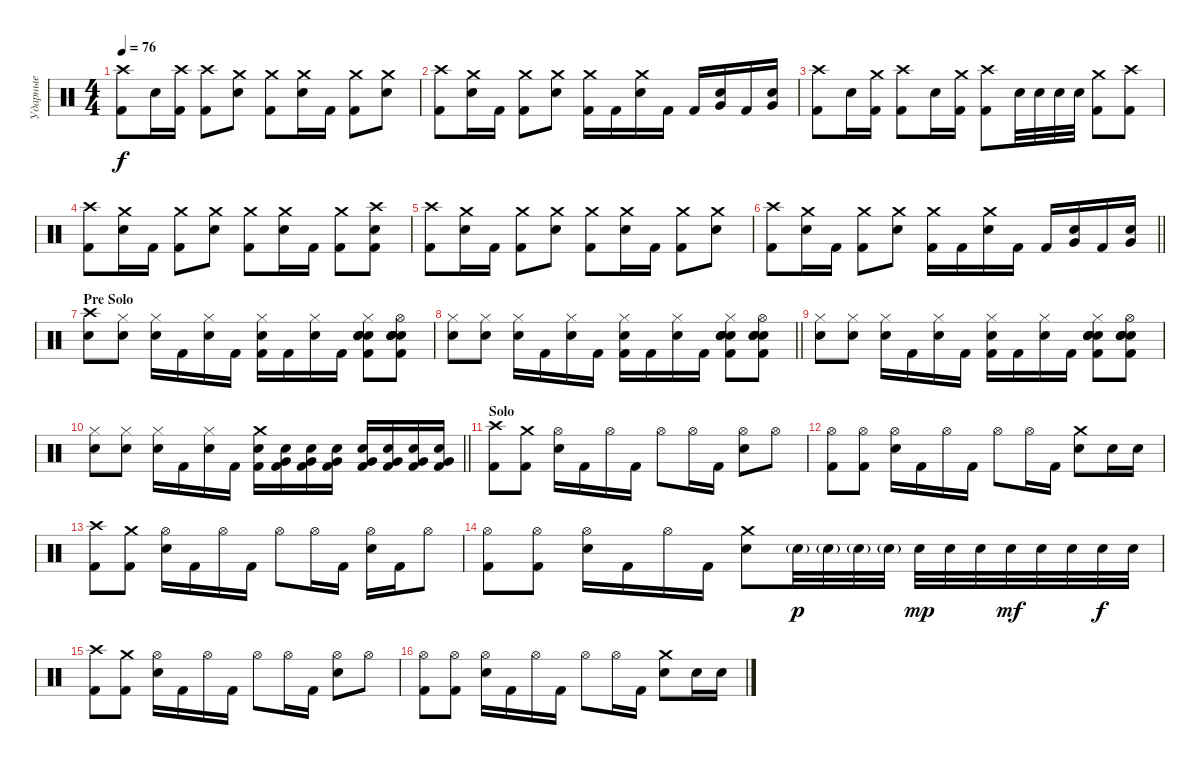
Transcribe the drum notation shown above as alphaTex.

\track ("Ударные" "Ударные") {instrument percussion}
\staff {score}
\articulation defaults
\ts (4 4)
\tempo 76
\clef neutral
\ks c
("Crash high (hit)" "Kick (hit) 2").8{dy f} "Electric Snare (hit)".16 ("Crash high (hit)" "Kick (hit) 2").16 ("Crash high (hit)" "Kick (hit) 2").8 ("Crash medium (hit)" "Electric Snare (hit)").8 ("Crash medium (hit)" "Kick (hit) 2").8 ("Crash medium (hit)" "Electric Snare (hit)").16 "Kick (hit) 2".16 ("Crash medium (hit)" "Kick (hit) 2").8 ("Crash medium (hit)" "Electric Snare (hit)").8 |
("Crash high (hit)" "Kick (hit) 2").8 ("Crash medium (hit)" "Electric Snare (hit)").16 "Kick (hit) 2".16 ("Crash medium (hit)" "Kick (hit) 2").8 ("Crash medium (hit)" "Electric Snare (hit)").8 ("Crash medium (hit)" "Kick (hit) 2").16 "Kick (hit) 2".16 ("Crash medium (hit)" "Electric Snare (hit)").16 "Kick (hit) 2".16 "Kick (hit) 2".16 ("Electric Snare (hit)" "Very Low Tom (hit)").16 "Kick (hit) 2".16 ("Electric Snare (hit)" "Very Low Tom (hit)").16 |
("Crash high (hit)" "Kick (hit) 2").8 "Electric Snare (hit)".16 ("Crash medium (hit)" "Kick (hit) 2").16 ("Crash high (hit)" "Kick (hit) 2").8 "Electric Snare (hit)".16 ("Crash medium (hit)" "Kick (hit) 2").16 ("Crash high (hit)" "Kick (hit) 2").8 "Electric Snare (hit)".32 "Electric Snare (hit)".32 "Electric Snare (hit)".32 "Electric Snare (hit)".32 ("Crash medium (hit)" "Kick (hit) 2").8 ("Crash high (hit)" "Kick (hit) 2").8 |
("Crash high (hit)" "Kick (hit) 2").8 ("Crash medium (hit)" "Electric Snare (hit)").16 "Kick (hit) 2".16 ("Crash medium (hit)" "Kick (hit) 2").8 ("Crash medium (hit)" "Electric Snare (hit)").8 ("Crash medium (hit)" "Kick (hit) 2").8 ("Crash medium (hit)" "Electric Snare (hit)").16 "Kick (hit) 2".16 ("Crash medium (hit)" "Kick (hit) 2").8 ("Crash high (hit)" "Electric Snare (hit)" "Kick (hit) 2").8 |
("Crash high (hit)" "Kick (hit) 2").8 ("Crash medium (hit)" "Electric Snare (hit)").16 "Kick (hit) 2".16 ("Crash medium (hit)" "Kick (hit) 2").8 ("Crash medium (hit)" "Electric Snare (hit)").8 ("Crash medium (hit)" "Kick (hit) 2").8 ("Crash medium (hit)" "Electric Snare (hit)").16 "Kick (hit) 2".16 ("Crash medium (hit)" "Kick (hit) 2").8 ("Crash medium (hit)" "Electric Snare (hit)").8 |
\barLineRight lightlight
("Crash high (hit)" "Kick (hit) 2").8 ("Crash medium (hit)" "Electric Snare (hit)").16 "Kick (hit) 2".16 ("Crash medium (hit)" "Kick (hit) 2").8 ("Crash medium (hit)" "Electric Snare (hit)").8 ("Crash medium (hit)" "Kick (hit) 2").16 "Kick (hit) 2".16 ("Crash medium (hit)" "Electric Snare (hit)").16 "Kick (hit) 2".16 "Kick (hit) 2".16 ("Electric Snare (hit)" "Very Low Tom (hit)").16 "Kick (hit) 2".16 ("Electric Snare (hit)" "Very Low Tom (hit)").16 |
\section ("" "Pre Solo")
("Crash high (hit)" "Electric Snare (hit)").8 ("Hi-Hat (closed)" "Electric Snare (hit)").8 ("Hi-Hat (closed)" "Electric Snare (hit)").16 "Kick (hit) 2".16 ("Hi-Hat (closed)" "Electric Snare (hit)").16 "Kick (hit) 2".16 ("Hi-Hat (closed)" "Electric Snare (hit)" "Kick (hit) 2").16 "Kick (hit) 2".16 ("Hi-Hat (closed)" "Electric Snare (hit)").16 "Kick (hit) 2".16 ("Hand Clap (hit)" "Hi-Hat (closed)" "Hand Clap (hit)" "Electric Snare (hit)" "Hand Clap (hit)" "Kick (hit) 2").8{bd 30} ("Hand Clap (hit)" "Hi-Hat (open)" "Hand Clap (hit)" "Electric Snare (hit)" "Hand Clap (hit)" "Kick (hit) 2").8{bd 30} |
\barLineRight lightlight
("Hi-Hat (closed)" "Electric Snare (hit)").8 ("Hi-Hat (closed)" "Electric Snare (hit)").8 ("Hi-Hat (closed)" "Electric Snare (hit)").16 "Kick (hit) 2".16 ("Hi-Hat (closed)" "Electric Snare (hit)").16 "Kick (hit) 2".16 ("Hi-Hat (closed)" "Electric Snare (hit)" "Kick (hit) 2").16 "Kick (hit) 2".16 ("Hi-Hat (closed)" "Electric Snare (hit)").16 "Kick (hit) 2".16 ("Hand Clap (hit)" "Hi-Hat (closed)" "Hand Clap (hit)" "Electric Snare (hit)" "Hand Clap (hit)" "Kick (hit) 2").8{bd 30} ("Hand Clap (hit)" "Hi-Hat (open)" "Hand Clap (hit)" "Electric Snare (hit)" "Hand Clap (hit)" "Kick (hit) 2").8{bd 30} |
("Hi-Hat (closed)" "Electric Snare (hit)").8 ("Hi-Hat (closed)" "Electric Snare (hit)").8 ("Hi-Hat (closed)" "Electric Snare (hit)").16 "Kick (hit) 2".16 ("Hi-Hat (closed)" "Electric Snare (hit)").16 "Kick (hit) 2".16 ("Hi-Hat (closed)" "Electric Snare (hit)" "Kick (hit) 2").16 "Kick (hit) 2".16 ("Hi-Hat (closed)" "Electric Snare (hit)").16 "Kick (hit) 2".16 ("Hand Clap (hit)" "Hi-Hat (closed)" "Hand Clap (hit)" "Electric Snare (hit)" "Hand Clap (hit)" "Kick (hit) 2").8{bd 30} ("Hand Clap (hit)" "Hi-Hat (open)" "Hand Clap (hit)" "Electric Snare (hit)" "Hand Clap (hit)" "Kick (hit) 2").8{bd 30} |
\barLineRight lightlight
("Hi-Hat (closed)" "Electric Snare (hit)").8 ("Hi-Hat (closed)" "Electric Snare (hit)").8 ("Hi-Hat (closed)" "Electric Snare (hit)").16 "Kick (hit) 2".16 ("Hi-Hat (closed)" "Electric Snare (hit)").16 "Kick (hit) 2".16 ("Crash medium (hit)" "Electric Snare (hit)" "Kick (hit) 2").16 ("Electric Snare (hit)" "Very Low Tom (hit)" "Kick (hit) 2").16 ("Electric Snare (hit)" "Very Low Tom (hit)" "Kick (hit) 2").16 ("Electric Snare (hit)" "Very Low Tom (hit)" "Kick (hit) 2").16 ("Electric Snare (hit)" "Very Low Tom (hit)" "Kick (hit) 2").16 ("Electric Snare (hit)" "Very Low Tom (hit)" "Kick (hit) 2").16 ("Electric Snare (hit)" "Very Low Tom (hit)" "Kick (hit) 2").16 ("Electric Snare (hit)" "Very Low Tom (hit)" "Kick (hit) 2").16 |
\section ("" "Solo")
("Crash high (hit)" "Kick (hit) 2").8 ("Crash medium (hit)" "Kick (hit) 2").8 ("Hi-Hat (open)" "Electric Snare (hit)").16 "Kick (hit) 2".16 "Hi-Hat (open)".16 "Kick (hit) 2".16 "Hi-Hat (open)".8 "Hi-Hat (open)".16 "Kick (hit) 2".16 ("Hi-Hat (open)" "Electric Snare (hit)").8 "Hi-Hat (open)".8 |
("Hi-Hat (open)" "Kick (hit) 2").8 ("Hi-Hat (open)" "Kick (hit) 2").8 ("Hi-Hat (open)" "Electric Snare (hit)").16 "Kick (hit) 2".16 "Hi-Hat (open)".16 "Kick (hit) 2".16 "Hi-Hat (open)".8 "Hi-Hat (open)".16 "Kick (hit) 2".16 ("Crash medium (hit)" "Electric Snare (hit)").8 "Electric Snare (hit)".16 "Electric Snare (hit)".16 |
("Crash high (hit)" "Kick (hit) 2").8 ("Crash medium (hit)" "Kick (hit) 2").8 ("Hi-Hat (open)" "Electric Snare (hit)").16 "Kick (hit) 2".16 "Hi-Hat (open)".16 "Kick (hit) 2".16 "Hi-Hat (open)".8 "Hi-Hat (open)".16 "Kick (hit) 2".16 ("Hi-Hat (open)" "Electric Snare (hit)").16 "Kick (hit) 2".16 "Hi-Hat (open)".8 |
("Hi-Hat (open)" "Kick (hit) 2").8 ("Hi-Hat (open)" "Kick (hit) 2").8 ("Hi-Hat (open)" "Electric Snare (hit)").16 "Kick (hit) 2".16 "Hi-Hat (open)".16 "Kick (hit) 2".16 ("Crash medium (hit)" "Electric Snare (hit)").8 "Electric Snare (hit)"{g}.32{dy p} "Electric Snare (hit)"{g}.32 "Electric Snare (hit)"{g}.32 "Electric Snare (hit)"{g}.32 "Electric Snare (hit)".32{dy mp} "Electric Snare (hit)".32 "Electric Snare (hit)".32 "Electric Snare (hit)".32{dy mf} "Electric Snare (hit)".32 "Electric Snare (hit)".32 "Electric Snare (hit)".32{dy f} "Electric Snare (hit)".32 |
("Crash high (hit)" "Kick (hit) 2").8 ("Crash medium (hit)" "Kick (hit) 2").8 ("Hi-Hat (open)" "Electric Snare (hit)").16 "Kick (hit) 2".16 "Hi-Hat (open)".16 "Kick (hit) 2".16 "Hi-Hat (open)".8 "Hi-Hat (open)".16 "Kick (hit) 2".16 ("Hi-Hat (open)" "Electric Snare (hit)").8 "Hi-Hat (open)".8 |
("Hi-Hat (open)" "Kick (hit) 2").8 ("Hi-Hat (open)" "Kick (hit) 2").8 ("Hi-Hat (open)" "Electric Snare (hit)").16 "Kick (hit) 2".16 "Hi-Hat (open)".16 "Kick (hit) 2".16 "Hi-Hat (open)".8 "Hi-Hat (open)".16 "Kick (hit) 2".16 ("Crash medium (hit)" "Electric Snare (hit)").8 "Electric Snare (hit)".16 "Electric Snare (hit)".16
